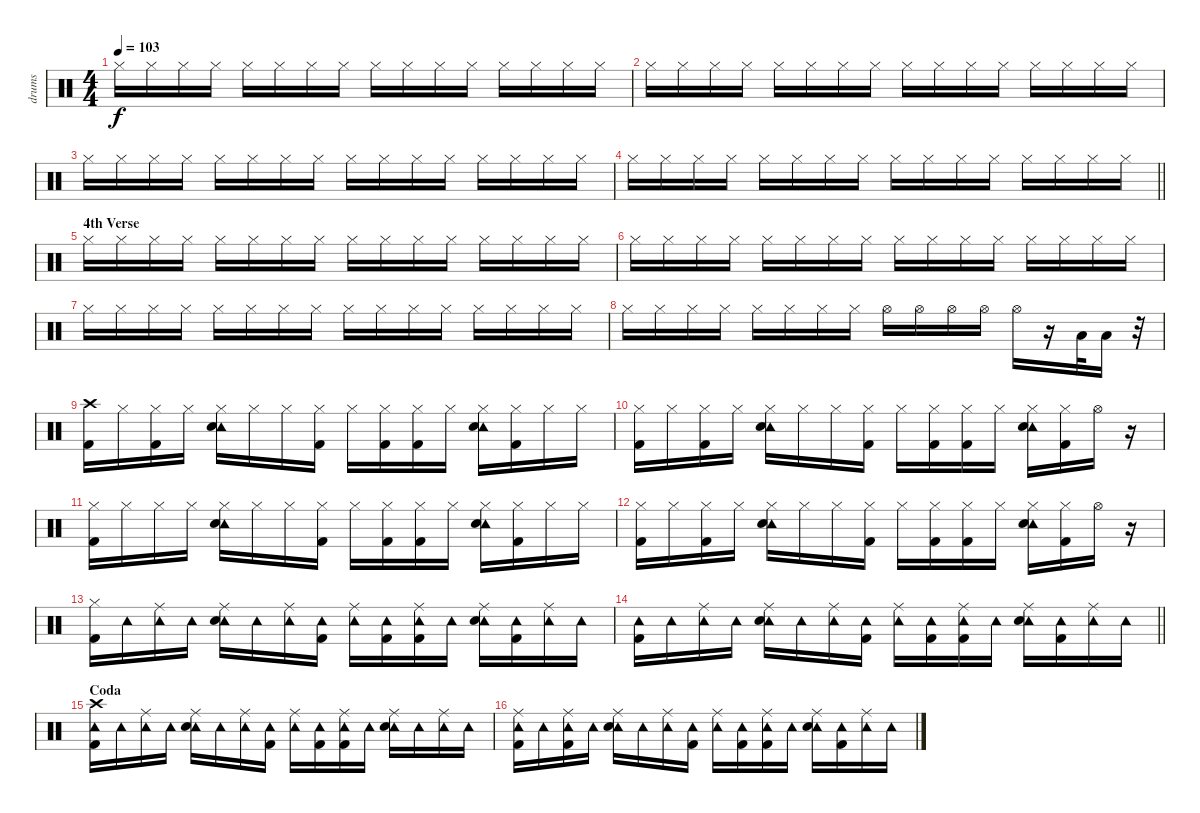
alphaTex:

\track ("drums" "drums") {instrument percussion}
\staff {score}
\articulation defaults
\ts (4 4)
\tempo 103
\clef neutral
\ks c "Hi-Hat (closed)".16{dy f} "Hi-Hat (closed)".16 "Hi-Hat (closed)".16 "Hi-Hat (closed)".16 "Hi-Hat (closed)".16 "Hi-Hat (closed)".16 "Hi-Hat (closed)".16 "Hi-Hat (closed)".16 "Hi-Hat (closed)".16 "Hi-Hat (closed)".16 "Hi-Hat (closed)".16 "Hi-Hat (closed)".16 "Hi-Hat (closed)".16 "Hi-Hat (closed)".16 "Hi-Hat (closed)".16 "Hi-Hat (closed)".16
|
"Hi-Hat (closed)".16 "Hi-Hat (closed)".16 "Hi-Hat (closed)".16 "Hi-Hat (closed)".16 "Hi-Hat (closed)".16 "Hi-Hat (closed)".16 "Hi-Hat (closed)".16 "Hi-Hat (closed)".16 "Hi-Hat (closed)".16 "Hi-Hat (closed)".16 "Hi-Hat (closed)".16 "Hi-Hat (closed)".16 "Hi-Hat (closed)".16 "Hi-Hat (closed)".16 "Hi-Hat (closed)".16 "Hi-Hat (closed)".16 |
"Hi-Hat (closed)".16 "Hi-Hat (closed)".16 "Hi-Hat (closed)".16 "Hi-Hat (closed)".16 "Hi-Hat (closed)".16 "Hi-Hat (closed)".16 "Hi-Hat (closed)".16 "Hi-Hat (closed)".16 "Hi-Hat (closed)".16 "Hi-Hat (closed)".16 "Hi-Hat (closed)".16 "Hi-Hat (closed)".16 "Hi-Hat (closed)".16 "Hi-Hat (closed)".16 "Hi-Hat (closed)".16 "Hi-Hat (closed)".16 |
\barLineRight lightlight "Hi-Hat (closed)".16 "Hi-Hat (closed)".16 "Hi-Hat (closed)".16 "Hi-Hat (closed)".16 "Hi-Hat (closed)".16 "Hi-Hat (closed)".16 "Hi-Hat (closed)".16 "Hi-Hat (closed)".16 "Hi-Hat (closed)".16 "Hi-Hat (closed)".16 "Hi-Hat (closed)".16 "Hi-Hat (closed)".16 "Hi-Hat (closed)".16 "Hi-Hat (closed)".16 "Hi-Hat (closed)".16 "Hi-Hat (closed)".16
|
\section ("" "4th Verse")
"Hi-Hat (closed)".16 "Hi-Hat (closed)".16 "Hi-Hat (closed)".16 "Hi-Hat (closed)".16 "Hi-Hat (closed)".16 "Hi-Hat (closed)".16 "Hi-Hat (closed)".16 "Hi-Hat (closed)".16 "Hi-Hat (closed)".16 "Hi-Hat (closed)".16 "Hi-Hat (closed)".16 "Hi-Hat (closed)".16 "Hi-Hat (closed)".16 "Hi-Hat (closed)".16 "Hi-Hat (closed)".16 "Hi-Hat (closed)".16 |
"Hi-Hat (closed)".16 "Hi-Hat (closed)".16 "Hi-Hat (closed)".16 "Hi-Hat (closed)".16 "Hi-Hat (closed)".16 "Hi-Hat (closed)".16 "Hi-Hat (closed)".16 "Hi-Hat (closed)".16 "Hi-Hat (closed)".16 "Hi-Hat (closed)".16 "Hi-Hat (closed)".16 "Hi-Hat (closed)".16 "Hi-Hat (closed)".16 "Hi-Hat (closed)".16 "Hi-Hat (closed)".16 "Hi-Hat (closed)".16 |
"Hi-Hat (closed)".16 "Hi-Hat (closed)".16 "Hi-Hat (closed)".16 "Hi-Hat (closed)".16 "Hi-Hat (closed)".16 "Hi-Hat (closed)".16 "Hi-Hat (closed)".16 "Hi-Hat (closed)".16 "Hi-Hat (closed)".16 "Hi-Hat (closed)".16 "Hi-Hat (closed)".16 "Hi-Hat (closed)".16 "Hi-Hat (closed)".16 "Hi-Hat (closed)".16 "Hi-Hat (closed)".16 "Hi-Hat (closed)".16 |
"Hi-Hat (closed)".16 "Hi-Hat (closed)".16 "Hi-Hat (closed)".16 "Hi-Hat (closed)".16 "Hi-Hat (closed)".16 "Hi-Hat (closed)".16 "Hi-Hat (closed)".16 "Hi-Hat (closed)".16 "Hi-Hat (open)".16 "Hi-Hat (open)".16 "Hi-Hat (open)".16 "Hi-Hat (open)".16 "Hi-Hat (open)".16 r.16 "Low Floor Tom (hit)".32 "Low Floor Tom (hit)".16 r.32 |
("Crash high (hit)" "Kick (hit) 2").16 "Hi-Hat (closed)".16 ("Hi-Hat (closed)" "Kick (hit) 2").16 "Hi-Hat (closed)".16 ("Tambourine (hit)" "Snare (hit) 2" "Hi-Hat (closed)").16 "Hi-Hat (closed)".16 "Hi-Hat (closed)".16 ("Hi-Hat (closed)" "Kick (hit) 2").16 "Hi-Hat (closed)".16 ("Hi-Hat (closed)" "Kick (hit) 2").16 ("Hi-Hat (closed)" "Kick (hit) 2").16 "Hi-Hat (closed)".16 ("Tambourine (hit)" "Snare (hit) 2" "Hi-Hat (closed)").16 ("Hi-Hat (closed)" "Kick (hit) 2").16 "Hi-Hat (closed)".16 "Hi-Hat (closed)".16 |
("Hi-Hat (closed)" "Kick (hit) 2").16 "Hi-Hat (closed)".16 ("Hi-Hat (closed)" "Kick (hit) 2").16 "Hi-Hat (closed)".16 ("Tambourine (hit)" "Snare (hit) 2" "Hi-Hat (closed)").16 "Hi-Hat (closed)".16 "Hi-Hat (closed)".16 ("Hi-Hat (closed)" "Kick (hit) 2").16 "Hi-Hat (closed)".16 ("Hi-Hat (closed)" "Kick (hit) 2").16 ("Hi-Hat (closed)" "Kick (hit) 2").16 "Hi-Hat (closed)".16 ("Tambourine (hit)" "Snare (hit) 2" "Hi-Hat (closed)").16 ("Hi-Hat (closed)" "Kick (hit) 2").16 "Hi-Hat (open)".16 r.16 |
("Hi-Hat (closed)" "Kick (hit) 2").16 "Hi-Hat (closed)".16 "Hi-Hat (closed)".16 "Hi-Hat (closed)".16 ("Tambourine (hit)" "Snare (hit) 2" "Hi-Hat (closed)").16 "Hi-Hat (closed)".16 "Hi-Hat (closed)".16 ("Hi-Hat (closed)" "Kick (hit) 2").16 "Hi-Hat (closed)".16 ("Hi-Hat (closed)" "Kick (hit) 2").16 ("Hi-Hat (closed)" "Kick (hit) 2").16 "Hi-Hat (closed)".16 ("Tambourine (hit)" "Snare (hit) 2" "Hi-Hat (closed)").16 ("Hi-Hat (closed)" "Kick (hit) 2").16 "Hi-Hat (closed)".16 "Hi-Hat (closed)".16 |
("Hi-Hat (closed)" "Kick (hit) 2").16 "Hi-Hat (closed)".16 ("Hi-Hat (closed)" "Kick (hit) 2").16 "Hi-Hat (closed)".16 ("Tambourine (hit)" "Snare (hit) 2" "Hi-Hat (closed)").16 "Hi-Hat (closed)".16 "Hi-Hat (closed)".16 ("Hi-Hat (closed)" "Kick (hit) 2").16 "Hi-Hat (closed)".16 ("Hi-Hat (closed)" "Kick (hit) 2").16 ("Hi-Hat (closed)" "Kick (hit) 2").16 "Hi-Hat (closed)".16 ("Tambourine (hit)" "Snare (hit) 2" "Hi-Hat (closed)").16 ("Hi-Hat (closed)" "Kick (hit) 2").16 "Hi-Hat (open)".16 r.16 |
("Hi-Hat (closed)" "Kick (hit) 2").16 "Tambourine (hit)".16 ("Ride (middle)" "Tambourine (hit)").16 "Tambourine (hit)".16 ("Ride (middle)" "Tambourine (hit)" "Snare (hit) 2").16 "Tambourine (hit)".16 ("Ride (middle)" "Tambourine (hit)").16 ("Tambourine (hit)" "Kick (hit) 2").16 ("Ride (middle)" "Tambourine (hit)").16 ("Tambourine (hit)" "Kick (hit) 2").16 ("Ride (middle)" "Tambourine (hit)" "Kick (hit) 2").16 "Tambourine (hit)".16 ("Ride (middle)" "Tambourine (hit)" "Snare (hit) 2").16 ("Tambourine (hit)" "Kick (hit) 2").16 ("Ride (middle)" "Tambourine (hit)").16 "Tambourine (hit)".16 |
\barLineRight lightlight
("Tambourine (hit)" "Kick (hit) 2").16 "Tambourine (hit)".16 ("Ride (middle)" "Tambourine (hit)").16 "Tambourine (hit)".16 ("Ride (middle)" "Tambourine (hit)" "Snare (hit) 2").16 "Tambourine (hit)".16 ("Ride (middle)" "Tambourine (hit)").16 ("Tambourine (hit)" "Kick (hit) 2").16 ("Ride (middle)" "Tambourine (hit)").16 ("Tambourine (hit)" "Kick (hit) 2").16 ("Ride (middle)" "Tambourine (hit)" "Kick (hit) 2").16 "Tambourine (hit)".16 ("Ride (middle)" "Tambourine (hit)" "Snare (hit) 2").16 ("Tambourine (hit)" "Kick (hit) 2").16 ("Ride (middle)" "Tambourine (hit)").16 "Tambourine (hit)".16 |
\section ("" "Coda")
("Crash high (hit)" "Tambourine (hit)" "Kick (hit) 2").16 "Tambourine (hit)".16 ("Ride (middle)" "Tambourine (hit)").16 "Tambourine (hit)".16 ("Ride (middle)" "Tambourine (hit)" "Snare (hit) 2").16 "Tambourine (hit)".16 ("Ride (middle)" "Tambourine (hit)").16 ("Tambourine (hit)" "Kick (hit) 2").16 ("Ride (middle)" "Tambourine (hit)").16 ("Tambourine (hit)" "Kick (hit) 2").16 ("Ride (middle)" "Tambourine (hit)" "Kick (hit) 2").16 "Tambourine (hit)".16 ("Ride (middle)" "Tambourine (hit)" "Snare (hit) 2").16 "Tambourine (hit)".16 ("Ride (middle)" "Tambourine (hit)").16 "Tambourine (hit)".16 |
("Ride (middle)" "Tambourine (hit)" "Kick (hit) 2").16 "Tambourine (hit)".16 ("Ride (middle)" "Tambourine (hit)" "Kick (hit) 2").16 "Tambourine (hit)".16 ("Ride (middle)" "Tambourine (hit)" "Snare (hit) 2").16 "Tambourine (hit)".16 ("Ride (middle)" "Tambourine (hit)").16 ("Tambourine (hit)" "Kick (hit) 2").16 ("Ride (middle)" "Tambourine (hit)").16 ("Tambourine (hit)" "Kick (hit) 2").16 ("Ride (middle)" "Tambourine (hit)" "Kick (hit) 2").16 "Tambourine (hit)".16 ("Ride (middle)" "Tambourine (hit)" "Snare (hit) 2").16 ("Tambourine (hit)" "Kick (hit) 2").16 ("Ride (middle)" "Tambourine (hit)").16 "Tambourine (hit)".16
